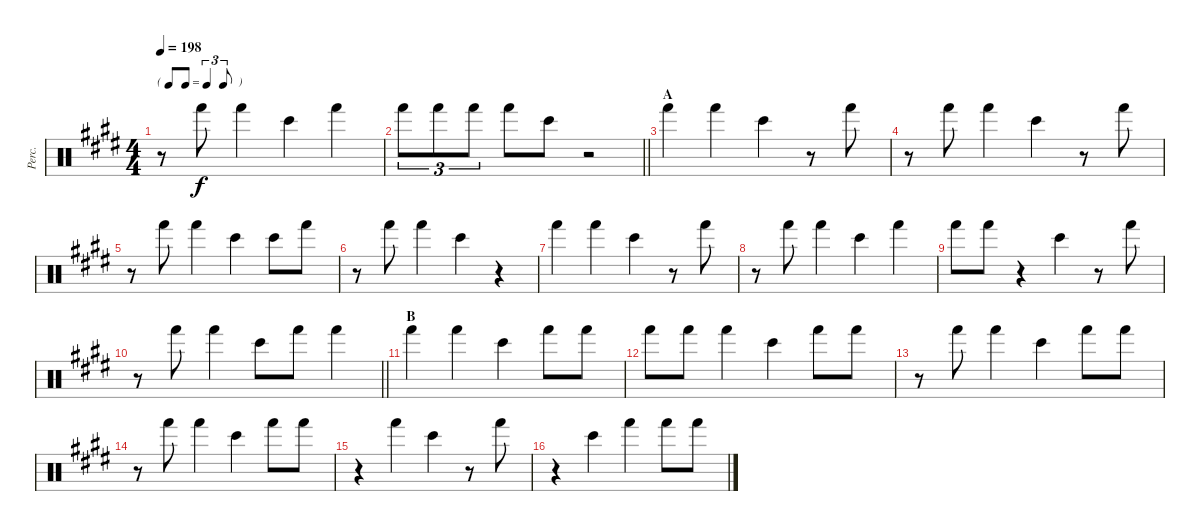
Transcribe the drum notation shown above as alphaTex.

\track ("Perc." "Perc.") {instrument percussion}
\staff {score}
\articulation defaults
\ts (4 4)
\tf triplet8th
\tempo 198
\clef neutral
\ks e
r.8{dy f} "Hand (hit)".8 "Hand (hit)".4 "Bongo High (hit)".4 "Hand (hit)".4 |
\barLineRight lightlight "Hand (hit)".8{tu (3 2)} "Hand (hit)".8{tu (3 2)} "Hand (hit)".8{tu (3 2)} "Hand (hit)".8 "Bongo High (hit)".8
r.2 |
\section ("" "A")
"Hand (hit)".4 "Hand (hit)".4 "Bongo High (hit)".4 r.8 "Hand (hit)".8 |
r.8 "Hand (hit)".8 "Hand (hit)".4 "Bongo High (hit)".4 r.8 "Hand (hit)".8 |
r.8 "Hand (hit)".8 "Hand (hit)".4 "Bongo High (hit)".4 "Bongo High (hit)".8 "Hand (hit)".8 |
r.8 "Hand (hit)".8 "Hand (hit)".4 "Bongo High (hit)".4 r.4 |
"Hand (hit)".4 "Hand (hit)".4 "Bongo High (hit)".4 r.8 "Hand (hit)".8 |
r.8 "Hand (hit)".8 "Hand (hit)".4 "Bongo High (hit)".4 "Hand (hit)".4 |
"Hand (hit)".8 "Hand (hit)".8 r.4 "Bongo High (hit)".4 r.8 "Hand (hit)".8 |
\barLineRight lightlight
r.8 "Hand (hit)".8 "Hand (hit)".4 "Bongo High (hit)".8 "Hand (hit)".8 "Hand (hit)".4 |
\section ("" "B")
"Hand (hit)".4 "Hand (hit)".4 "Bongo High (hit)".4 "Hand (hit)".8 "Hand (hit)".8 |
"Hand (hit)".8 "Hand (hit)".8 "Hand (hit)".4 "Bongo High (hit)".4 "Hand (hit)".8 "Hand (hit)".8 |
r.8 "Hand (hit)".8 "Hand (hit)".4 "Bongo High (hit)".4 "Hand (hit)".8 "Hand (hit)".8 |
r.8 "Hand (hit)".8 "Hand (hit)".4 "Bongo High (hit)".4 "Hand (hit)".8 "Hand (hit)".8 |
r.4 "Hand (hit)".4 "Bongo High (hit)".4 r.8 "Hand (hit)".8 |
r.4 "Bongo High (hit)".4 "Hand (hit)".4 "Hand (hit)".8 "Hand (hit)".8
